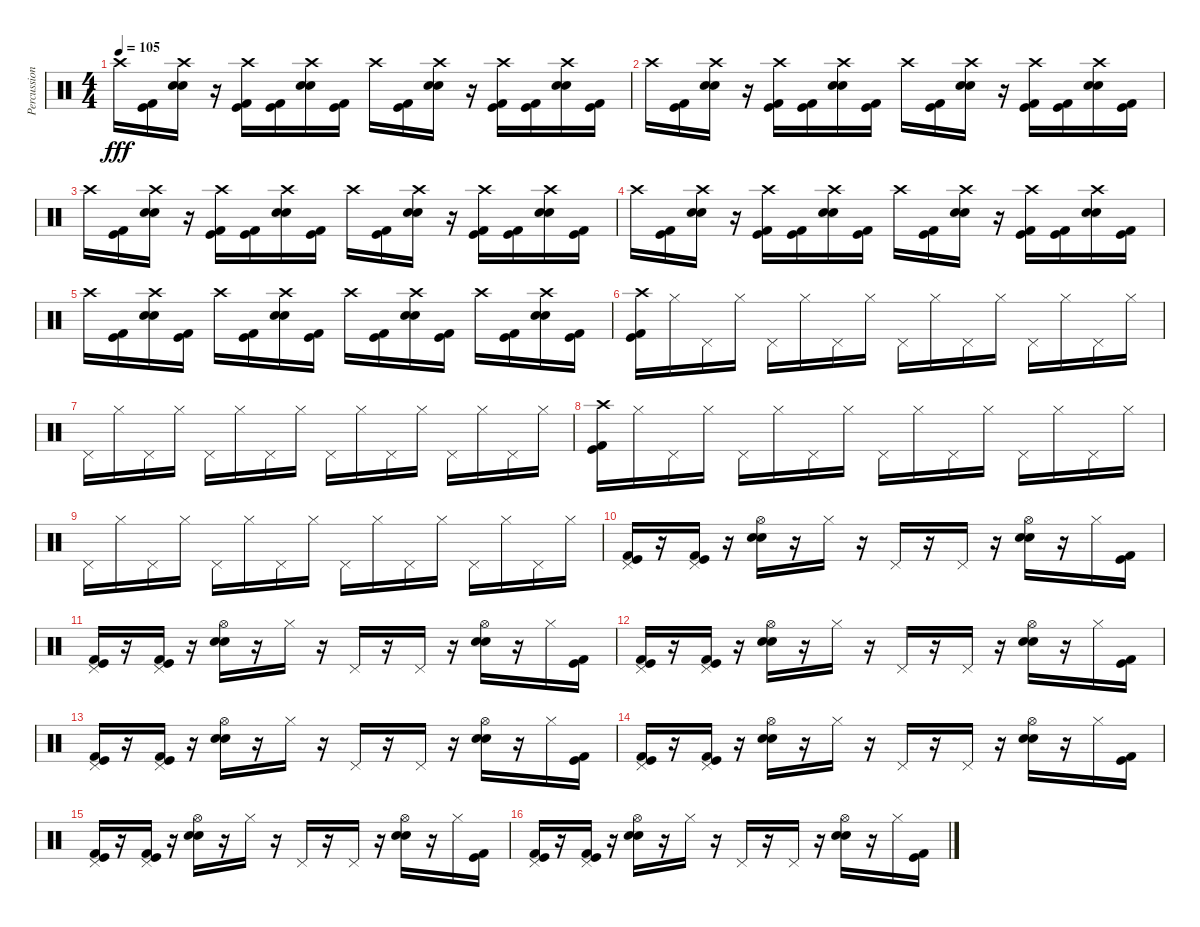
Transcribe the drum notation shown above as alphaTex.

\track ("Percussion" "Percussion") {instrument percussion}
\staff {score}
\articulation defaults
\ts (4 4)
\tempo 105
\clef neutral
\ks c "Crash high (hit)".16{dy fff}
("Kick (hit)" "Kick (hit) 2").16 ("Snare (hit) 2" "Crash high (hit)" "Electric Snare (hit)").16 r.16 ("Kick (hit)" "Crash high (hit)" "Kick (hit) 2").16 ("Kick (hit)" "Kick (hit) 2").16 ("Snare (hit) 2" "Crash high (hit)" "Electric Snare (hit)").16 ("Kick (hit)" "Kick (hit) 2").16 "Crash high (hit)".16 ("Kick (hit)" "Kick (hit) 2").16 ("Snare (hit) 2" "Crash high (hit)" "Electric Snare (hit)").16 r.16 ("Kick (hit)" "Crash high (hit)" "Kick (hit) 2").16 ("Kick (hit)" "Kick (hit) 2").16 ("Snare (hit) 2" "Crash high (hit)" "Electric Snare (hit)").16 ("Kick (hit)" "Kick (hit) 2").16 |
"Crash high (hit)".16 ("Kick (hit)" "Kick (hit) 2").16 ("Snare (hit) 2" "Crash high (hit)" "Electric Snare (hit)").16 r.16 ("Kick (hit)" "Crash high (hit)" "Kick (hit) 2").16 ("Kick (hit)" "Kick (hit) 2").16 ("Snare (hit) 2" "Crash high (hit)" "Electric Snare (hit)").16 ("Kick (hit)" "Kick (hit) 2").16 "Crash high (hit)".16 ("Kick (hit)" "Kick (hit) 2").16 ("Snare (hit) 2" "Crash high (hit)" "Electric Snare (hit)").16 r.16 ("Kick (hit)" "Crash high (hit)" "Kick (hit) 2").16 ("Kick (hit)" "Kick (hit) 2").16 ("Snare (hit) 2" "Crash high (hit)" "Electric Snare (hit)").16 ("Kick (hit)" "Kick (hit) 2").16 |
"Crash high (hit)".16 ("Kick (hit)" "Kick (hit) 2").16 ("Snare (hit) 2" "Crash high (hit)" "Electric Snare (hit)").16 r.16 ("Kick (hit)" "Crash high (hit)" "Kick (hit) 2").16 ("Kick (hit)" "Kick (hit) 2").16 ("Snare (hit) 2" "Crash high (hit)" "Electric Snare (hit)").16 ("Kick (hit)" "Kick (hit) 2").16 "Crash high (hit)".16 ("Kick (hit)" "Kick (hit) 2").16 ("Snare (hit) 2" "Crash high (hit)" "Electric Snare (hit)").16 r.16 ("Kick (hit)" "Crash high (hit)" "Kick (hit) 2").16 ("Kick (hit)" "Kick (hit) 2").16 ("Snare (hit) 2" "Crash high (hit)" "Electric Snare (hit)").16 ("Kick (hit)" "Kick (hit) 2").16 |
"Crash high (hit)".16 ("Kick (hit)" "Kick (hit) 2").16 ("Snare (hit) 2" "Crash high (hit)" "Electric Snare (hit)").16 r.16 ("Kick (hit)" "Crash high (hit)" "Kick (hit) 2").16 ("Kick (hit)" "Kick (hit) 2").16 ("Snare (hit) 2" "Crash high (hit)" "Electric Snare (hit)").16 ("Kick (hit)" "Kick (hit) 2").16 "Crash high (hit)".16 ("Kick (hit)" "Kick (hit) 2").16 ("Snare (hit) 2" "Crash high (hit)" "Electric Snare (hit)").16 r.16 ("Kick (hit)" "Crash high (hit)" "Kick (hit) 2").16 ("Kick (hit)" "Kick (hit) 2").16 ("Snare (hit) 2" "Crash high (hit)" "Electric Snare (hit)").16 ("Kick (hit)" "Kick (hit) 2").16 |
"Crash high (hit)".16 ("Kick (hit)" "Kick (hit) 2").16 ("Snare (hit) 2" "Crash high (hit)" "Electric Snare (hit)").16 ("Kick (hit)" "Kick (hit) 2").16 "Crash high (hit)".16 ("Kick (hit)" "Kick (hit) 2").16 ("Snare (hit) 2" "Crash high (hit)" "Electric Snare (hit)").16 ("Kick (hit)" "Kick (hit) 2").16 "Crash high (hit)".16 ("Kick (hit)" "Kick (hit) 2").16 ("Snare (hit) 2" "Crash high (hit)" "Electric Snare (hit)").16 ("Kick (hit)" "Kick (hit) 2").16 "Crash high (hit)".16 ("Kick (hit)" "Kick (hit) 2").16 ("Snare (hit) 2" "Crash high (hit)" "Electric Snare (hit)").16 ("Kick (hit)" "Kick (hit) 2").16 |
("Kick (hit)" "Crash high (hit)" "Kick (hit) 2").16 "Hi-Hat (closed)".16 "Pedal Hi-Hat (hit)".16 "Hi-Hat (closed)".16 "Pedal Hi-Hat (hit)".16 "Hi-Hat (closed)".16 "Pedal Hi-Hat (hit)".16 "Hi-Hat (closed)".16 "Pedal Hi-Hat (hit)".16 "Hi-Hat (closed)".16 "Pedal Hi-Hat (hit)".16 "Hi-Hat (closed)".16 "Pedal Hi-Hat (hit)".16 "Hi-Hat (closed)".16 "Pedal Hi-Hat (hit)".16 "Hi-Hat (closed)".16 |
"Pedal Hi-Hat (hit)".16 "Hi-Hat (closed)".16 "Pedal Hi-Hat (hit)".16 "Hi-Hat (closed)".16 "Pedal Hi-Hat (hit)".16 "Hi-Hat (closed)".16 "Pedal Hi-Hat (hit)".16 "Hi-Hat (closed)".16 "Pedal Hi-Hat (hit)".16 "Hi-Hat (closed)".16 "Pedal Hi-Hat (hit)".16 "Hi-Hat (closed)".16 "Pedal Hi-Hat (hit)".16 "Hi-Hat (closed)".16 "Pedal Hi-Hat (hit)".16 "Hi-Hat (closed)".16 |
("Kick (hit)" "Crash high (hit)" "Kick (hit) 2").16 "Hi-Hat (closed)".16 "Pedal Hi-Hat (hit)".16 "Hi-Hat (closed)".16 "Pedal Hi-Hat (hit)".16 "Hi-Hat (closed)".16 "Pedal Hi-Hat (hit)".16 "Hi-Hat (closed)".16 "Pedal Hi-Hat (hit)".16 "Hi-Hat (closed)".16 "Pedal Hi-Hat (hit)".16 "Hi-Hat (closed)".16 "Pedal Hi-Hat (hit)".16 "Hi-Hat (closed)".16 "Pedal Hi-Hat (hit)".16 "Hi-Hat (closed)".16 |
"Pedal Hi-Hat (hit)".16 "Hi-Hat (closed)".16 "Pedal Hi-Hat (hit)".16 "Hi-Hat (closed)".16 "Pedal Hi-Hat (hit)".16 "Hi-Hat (closed)".16 "Pedal Hi-Hat (hit)".16 "Hi-Hat (closed)".16 "Pedal Hi-Hat (hit)".16 "Hi-Hat (closed)".16 "Pedal Hi-Hat (hit)".16 "Hi-Hat (closed)".16 "Pedal Hi-Hat (hit)".16 "Hi-Hat (closed)".16 "Pedal Hi-Hat (hit)".16 "Hi-Hat (closed)".16 |
("Kick (hit)" "Pedal Hi-Hat (hit)" "Kick (hit) 2").16 r.16 ("Kick (hit)" "Pedal Hi-Hat (hit)" "Kick (hit) 2").16 r.16 ("Snare (hit) 2" "Hi-Hat (open)" "Electric Snare (hit)").16 r.16 "Hi-Hat (closed)".16 r.16 "Pedal Hi-Hat (hit)".16 r.16 "Pedal Hi-Hat (hit)".16 r.16 ("Snare (hit) 2" "Hi-Hat (open)" "Electric Snare (hit)").16 r.16 "Hi-Hat (closed)".16 ("Kick (hit)" "Kick (hit) 2").16 |
("Kick (hit)" "Pedal Hi-Hat (hit)" "Kick (hit) 2").16 r.16 ("Kick (hit)" "Pedal Hi-Hat (hit)" "Kick (hit) 2").16 r.16 ("Snare (hit) 2" "Hi-Hat (open)" "Electric Snare (hit)").16 r.16 "Hi-Hat (closed)".16 r.16 "Pedal Hi-Hat (hit)".16 r.16 "Pedal Hi-Hat (hit)".16 r.16 ("Snare (hit) 2" "Hi-Hat (open)" "Electric Snare (hit)").16 r.16 "Hi-Hat (closed)".16 ("Kick (hit)" "Kick (hit) 2").16 |
("Kick (hit)" "Pedal Hi-Hat (hit)" "Kick (hit) 2").16 r.16 ("Kick (hit)" "Pedal Hi-Hat (hit)" "Kick (hit) 2").16 r.16 ("Snare (hit) 2" "Hi-Hat (open)" "Electric Snare (hit)").16 r.16 "Hi-Hat (closed)".16 r.16 "Pedal Hi-Hat (hit)".16 r.16 "Pedal Hi-Hat (hit)".16 r.16 ("Snare (hit) 2" "Hi-Hat (open)" "Electric Snare (hit)").16 r.16 "Hi-Hat (closed)".16 ("Kick (hit)" "Kick (hit) 2").16 |
("Kick (hit)" "Pedal Hi-Hat (hit)" "Kick (hit) 2").16 r.16 ("Kick (hit)" "Pedal Hi-Hat (hit)" "Kick (hit) 2").16 r.16 ("Snare (hit) 2" "Hi-Hat (open)" "Electric Snare (hit)").16 r.16 "Hi-Hat (closed)".16 r.16 "Pedal Hi-Hat (hit)".16 r.16 "Pedal Hi-Hat (hit)".16 r.16 ("Snare (hit) 2" "Hi-Hat (open)" "Electric Snare (hit)").16 r.16 "Hi-Hat (closed)".16 ("Kick (hit)" "Kick (hit) 2").16 |
("Kick (hit)" "Pedal Hi-Hat (hit)" "Kick (hit) 2").16 r.16 ("Kick (hit)" "Pedal Hi-Hat (hit)" "Kick (hit) 2").16 r.16 ("Snare (hit) 2" "Hi-Hat (open)" "Electric Snare (hit)").16 r.16 "Hi-Hat (closed)".16 r.16 "Pedal Hi-Hat (hit)".16 r.16 "Pedal Hi-Hat (hit)".16 r.16 ("Snare (hit) 2" "Hi-Hat (open)" "Electric Snare (hit)").16 r.16 "Hi-Hat (closed)".16 ("Kick (hit)" "Kick (hit) 2").16 |
("Kick (hit)" "Pedal Hi-Hat (hit)" "Kick (hit) 2").16 r.16 ("Kick (hit)" "Pedal Hi-Hat (hit)" "Kick (hit) 2").16 r.16 ("Snare (hit) 2" "Hi-Hat (open)" "Electric Snare (hit)").16 r.16 "Hi-Hat (closed)".16 r.16 "Pedal Hi-Hat (hit)".16 r.16 "Pedal Hi-Hat (hit)".16 r.16 ("Snare (hit) 2" "Hi-Hat (open)" "Electric Snare (hit)").16 r.16 "Hi-Hat (closed)".16 ("Kick (hit)" "Kick (hit) 2").16 |
("Kick (hit)" "Pedal Hi-Hat (hit)" "Kick (hit) 2").16 r.16 ("Kick (hit)" "Pedal Hi-Hat (hit)" "Kick (hit) 2").16 r.16 ("Snare (hit) 2" "Hi-Hat (open)" "Electric Snare (hit)").16 r.16 "Hi-Hat (closed)".16 r.16 "Pedal Hi-Hat (hit)".16 r.16 "Pedal Hi-Hat (hit)".16 r.16 ("Snare (hit) 2" "Hi-Hat (open)" "Electric Snare (hit)").16 r.16 "Hi-Hat (closed)".16 ("Kick (hit)" "Kick (hit) 2").16
